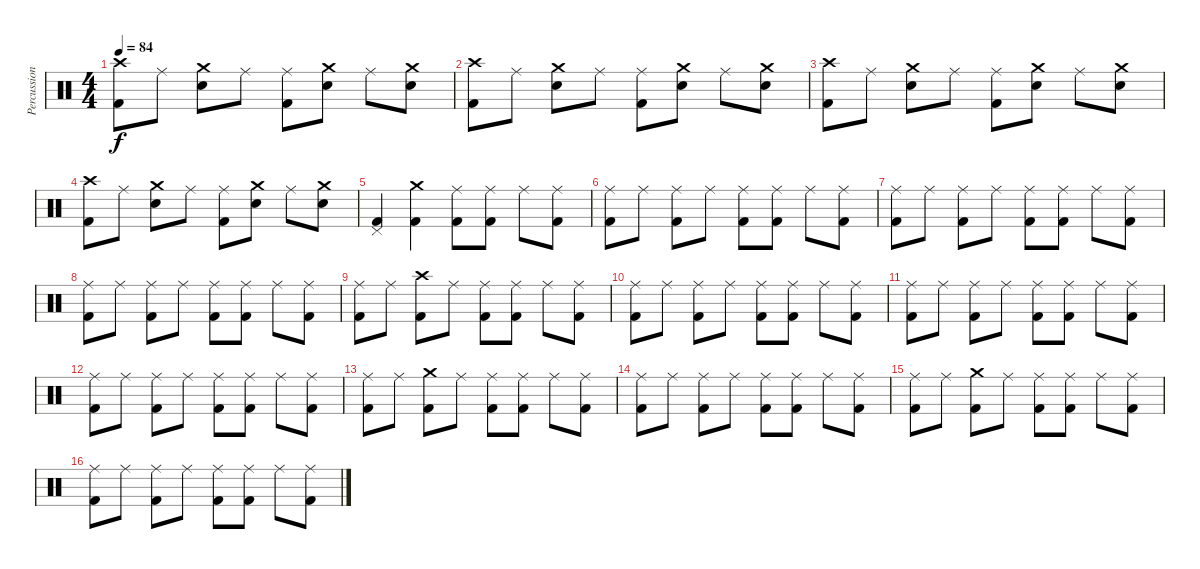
\track ("Percussion" "Percussion") {instrument percussion}
\staff {score}
\articulation defaults
\ts (4 4)
\tempo 84
\clef neutral
\ks c
("Crash high (hit)" "Kick (hit) 2").8{dy f} "Ride (middle)".8 ("Crash medium (hit)" "Snare (hit) 2").8 "Ride (middle)".8 ("Ride (middle)" "Kick (hit) 2").8 ("Crash medium (hit)" "Snare (hit) 2").8 "Ride (middle)".8 ("Crash medium (hit)" "Snare (hit) 2").8 |
("Crash high (hit)" "Kick (hit) 2").8 "Ride (middle)".8 ("Crash medium (hit)" "Snare (hit) 2").8 "Ride (middle)".8 ("Ride (middle)" "Kick (hit) 2").8 ("Crash medium (hit)" "Snare (hit) 2").8 "Ride (middle)".8 ("Crash medium (hit)" "Snare (hit) 2").8 |
("Crash high (hit)" "Kick (hit) 2").8 "Ride (middle)".8 ("Crash medium (hit)" "Snare (hit) 2").8 "Ride (middle)".8 ("Ride (middle)" "Kick (hit) 2").8 ("Crash medium (hit)" "Snare (hit) 2").8 "Ride (middle)".8 ("Crash medium (hit)" "Snare (hit) 2").8 |
("Crash high (hit)" "Kick (hit) 2").8 "Ride (middle)".8 ("Crash medium (hit)" "Snare (hit) 2").8 "Ride (middle)".8 ("Ride (middle)" "Kick (hit) 2").8 ("Crash medium (hit)" "Snare (hit) 2").8 "Ride (middle)".8 ("Crash medium (hit)" "Snare (hit) 2").8 |
("Pedal Hi-Hat (hit)" "Kick (hit) 2").4 ("Crash medium (hit)" "Kick (hit) 2").4 ("Ride (middle)" "Kick (hit) 2").8 ("Ride (middle)" "Kick (hit) 2").8 "Ride (middle)".8 ("Ride (middle)" "Kick (hit) 2").8 |
("Ride (middle)" "Kick (hit) 2").8 "Ride (middle)".8 ("Ride (middle)" "Kick (hit) 2").8 "Ride (middle)".8 ("Ride (middle)" "Kick (hit) 2").8 ("Ride (middle)" "Kick (hit) 2").8 "Ride (middle)".8 ("Ride (middle)" "Kick (hit) 2").8 |
("Ride (middle)" "Kick (hit) 2").8 "Ride (middle)".8 ("Ride (middle)" "Kick (hit) 2").8 "Ride (middle)".8 ("Ride (middle)" "Kick (hit) 2").8 ("Ride (middle)" "Kick (hit) 2").8 "Ride (middle)".8 ("Ride (middle)" "Kick (hit) 2").8 |
("Ride (middle)" "Kick (hit) 2").8 "Ride (middle)".8 ("Ride (middle)" "Kick (hit) 2").8 "Ride (middle)".8 ("Ride (middle)" "Kick (hit) 2").8 ("Ride (middle)" "Kick (hit) 2").8 "Ride (middle)".8 ("Ride (middle)" "Kick (hit) 2").8 |
("Ride (middle)" "Kick (hit) 2").8 "Ride (middle)".8 ("Crash high (hit)" "Kick (hit) 2").8 "Ride (middle)".8 ("Ride (middle)" "Kick (hit) 2").8 ("Ride (middle)" "Kick (hit) 2").8 "Ride (middle)".8 ("Ride (middle)" "Kick (hit) 2").8 |
("Ride (middle)" "Kick (hit) 2").8 "Ride (middle)".8 ("Ride (middle)" "Kick (hit) 2").8 "Ride (middle)".8 ("Ride (middle)" "Kick (hit) 2").8 ("Ride (middle)" "Kick (hit) 2").8 "Ride (middle)".8 ("Ride (middle)" "Kick (hit) 2").8 |
("Ride (middle)" "Kick (hit) 2").8 "Ride (middle)".8 ("Ride (middle)" "Kick (hit) 2").8 "Ride (middle)".8 ("Ride (middle)" "Kick (hit) 2").8 ("Ride (middle)" "Kick (hit) 2").8 "Ride (middle)".8 ("Ride (middle)" "Kick (hit) 2").8 |
("Ride (middle)" "Kick (hit) 2").8 "Ride (middle)".8 ("Ride (middle)" "Kick (hit) 2").8 "Ride (middle)".8 ("Ride (middle)" "Kick (hit) 2").8 ("Ride (middle)" "Kick (hit) 2").8 "Ride (middle)".8 ("Ride (middle)" "Kick (hit) 2").8 |
("Ride (middle)" "Kick (hit) 2").8 "Ride (middle)".8 ("Crash medium (hit)" "Kick (hit) 2").8 "Ride (middle)".8 ("Ride (middle)" "Kick (hit) 2").8 ("Ride (middle)" "Kick (hit) 2").8 "Ride (middle)".8 ("Ride (middle)" "Kick (hit) 2").8 |
("Ride (middle)" "Kick (hit) 2").8 "Ride (middle)".8 ("Ride (middle)" "Kick (hit) 2").8 "Ride (middle)".8 ("Ride (middle)" "Kick (hit) 2").8 ("Ride (middle)" "Kick (hit) 2").8 "Ride (middle)".8 ("Ride (middle)" "Kick (hit) 2").8 |
("Ride (middle)" "Kick (hit) 2").8 "Ride (middle)".8 ("Crash medium (hit)" "Kick (hit) 2").8 "Ride (middle)".8 ("Ride (middle)" "Kick (hit) 2").8 ("Ride (middle)" "Kick (hit) 2").8 "Ride (middle)".8 ("Ride (middle)" "Kick (hit) 2").8 |
("Ride (middle)" "Kick (hit) 2").8 "Ride (middle)".8 ("Ride (middle)" "Kick (hit) 2").8 "Ride (middle)".8 ("Ride (middle)" "Kick (hit) 2").8 ("Ride (middle)" "Kick (hit) 2").8 "Ride (middle)".8 ("Ride (middle)" "Kick (hit) 2").8
